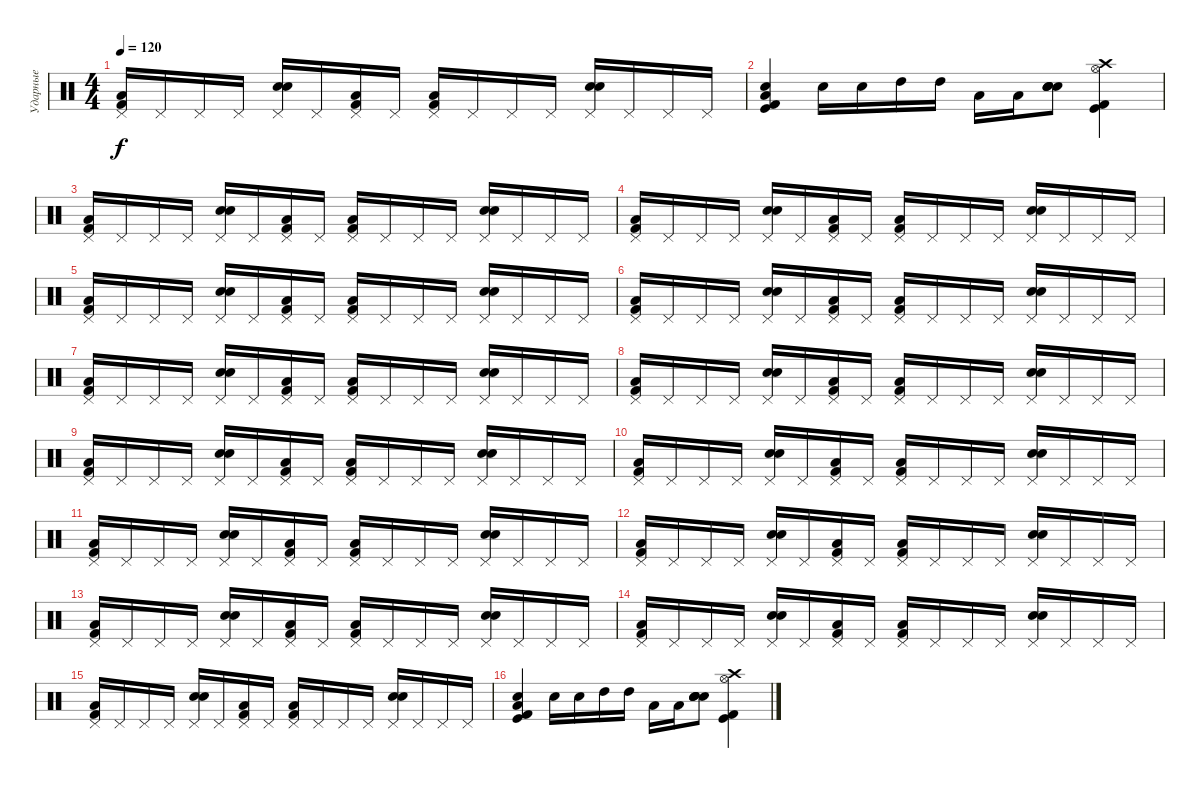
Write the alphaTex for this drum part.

\track ("Ударные" "Ударные") {instrument percussion}
\staff {score}
\articulation defaults
\ts (4 4)
\tempo 120
\clef neutral
\ks c
("Kick (hit) 2" "Low Floor Tom (hit)" "Pedal Hi-Hat (hit)").16{dy f} "Pedal Hi-Hat (hit)".16 "Pedal Hi-Hat (hit)".16 "Pedal Hi-Hat (hit)".16 ("Electric Snare (hit)" "Electric Snare (hit)" "Pedal Hi-Hat (hit)").16 "Pedal Hi-Hat (hit)".16 ("Kick (hit) 2" "Low Floor Tom (hit)" "Pedal Hi-Hat (hit)").16 "Pedal Hi-Hat (hit)".16 ("Kick (hit) 2" "Low Floor Tom (hit)" "Pedal Hi-Hat (hit)").16 "Pedal Hi-Hat (hit)".16 "Pedal Hi-Hat (hit)".16 "Pedal Hi-Hat (hit)".16 ("Electric Snare (hit)" "Electric Snare (hit)" "Pedal Hi-Hat (hit)").16 "Pedal Hi-Hat (hit)".16 "Pedal Hi-Hat (hit)".16 "Pedal Hi-Hat (hit)".16 |
("Low Floor Tom (hit)" "Kick (hit)" "Snare (hit) 2" "Kick (hit) 2").4 "Electric Snare (hit)".16 "Electric Snare (hit)".16 "High Tom (hit)".16 "High Tom (hit)".16 "Low Tom (hit)".16 "Low Tom (hit)".16 ("Snare (hit) 2" "Snare (hit) 2" "Snare (hit) 2" "Snare (hit) 2").8 ("Hi-Hat (open)" "Crash high (hit)" "Kick (hit)" "Kick (hit) 2").4 |
("Kick (hit) 2" "Low Floor Tom (hit)" "Pedal Hi-Hat (hit)").16 "Pedal Hi-Hat (hit)".16 "Pedal Hi-Hat (hit)".16 "Pedal Hi-Hat (hit)".16 ("Electric Snare (hit)" "Electric Snare (hit)" "Pedal Hi-Hat (hit)").16 "Pedal Hi-Hat (hit)".16 ("Kick (hit) 2" "Low Floor Tom (hit)" "Pedal Hi-Hat (hit)").16 "Pedal Hi-Hat (hit)".16 ("Kick (hit) 2" "Low Floor Tom (hit)" "Pedal Hi-Hat (hit)").16 "Pedal Hi-Hat (hit)".16 "Pedal Hi-Hat (hit)".16 "Pedal Hi-Hat (hit)".16 ("Electric Snare (hit)" "Electric Snare (hit)" "Pedal Hi-Hat (hit)").16 "Pedal Hi-Hat (hit)".16 "Pedal Hi-Hat (hit)".16 "Pedal Hi-Hat (hit)".16 |
("Kick (hit) 2" "Low Floor Tom (hit)" "Pedal Hi-Hat (hit)").16 "Pedal Hi-Hat (hit)".16 "Pedal Hi-Hat (hit)".16 "Pedal Hi-Hat (hit)".16 ("Electric Snare (hit)" "Electric Snare (hit)" "Pedal Hi-Hat (hit)").16 "Pedal Hi-Hat (hit)".16 ("Kick (hit) 2" "Low Floor Tom (hit)" "Pedal Hi-Hat (hit)").16 "Pedal Hi-Hat (hit)".16 ("Kick (hit) 2" "Low Floor Tom (hit)" "Pedal Hi-Hat (hit)").16 "Pedal Hi-Hat (hit)".16 "Pedal Hi-Hat (hit)".16 "Pedal Hi-Hat (hit)".16 ("Electric Snare (hit)" "Electric Snare (hit)" "Pedal Hi-Hat (hit)").16 "Pedal Hi-Hat (hit)".16 "Pedal Hi-Hat (hit)".16 "Pedal Hi-Hat (hit)".16 |
("Kick (hit) 2" "Low Floor Tom (hit)" "Pedal Hi-Hat (hit)").16 "Pedal Hi-Hat (hit)".16 "Pedal Hi-Hat (hit)".16 "Pedal Hi-Hat (hit)".16 ("Electric Snare (hit)" "Electric Snare (hit)" "Pedal Hi-Hat (hit)").16 "Pedal Hi-Hat (hit)".16 ("Kick (hit) 2" "Low Floor Tom (hit)" "Pedal Hi-Hat (hit)").16 "Pedal Hi-Hat (hit)".16 ("Kick (hit) 2" "Low Floor Tom (hit)" "Pedal Hi-Hat (hit)").16 "Pedal Hi-Hat (hit)".16 "Pedal Hi-Hat (hit)".16 "Pedal Hi-Hat (hit)".16 ("Electric Snare (hit)" "Electric Snare (hit)" "Pedal Hi-Hat (hit)").16 "Pedal Hi-Hat (hit)".16 "Pedal Hi-Hat (hit)".16 "Pedal Hi-Hat (hit)".16 |
("Kick (hit) 2" "Low Floor Tom (hit)" "Pedal Hi-Hat (hit)").16 "Pedal Hi-Hat (hit)".16 "Pedal Hi-Hat (hit)".16 "Pedal Hi-Hat (hit)".16 ("Electric Snare (hit)" "Electric Snare (hit)" "Pedal Hi-Hat (hit)").16 "Pedal Hi-Hat (hit)".16 ("Kick (hit) 2" "Low Floor Tom (hit)" "Pedal Hi-Hat (hit)").16 "Pedal Hi-Hat (hit)".16 ("Kick (hit) 2" "Low Floor Tom (hit)" "Pedal Hi-Hat (hit)").16 "Pedal Hi-Hat (hit)".16 "Pedal Hi-Hat (hit)".16 "Pedal Hi-Hat (hit)".16 ("Electric Snare (hit)" "Electric Snare (hit)" "Pedal Hi-Hat (hit)").16 "Pedal Hi-Hat (hit)".16 "Pedal Hi-Hat (hit)".16 "Pedal Hi-Hat (hit)".16 |
("Kick (hit) 2" "Low Floor Tom (hit)" "Pedal Hi-Hat (hit)").16 "Pedal Hi-Hat (hit)".16 "Pedal Hi-Hat (hit)".16 "Pedal Hi-Hat (hit)".16 ("Electric Snare (hit)" "Electric Snare (hit)" "Pedal Hi-Hat (hit)").16 "Pedal Hi-Hat (hit)".16 ("Kick (hit) 2" "Low Floor Tom (hit)" "Pedal Hi-Hat (hit)").16 "Pedal Hi-Hat (hit)".16 ("Kick (hit) 2" "Low Floor Tom (hit)" "Pedal Hi-Hat (hit)").16 "Pedal Hi-Hat (hit)".16 "Pedal Hi-Hat (hit)".16 "Pedal Hi-Hat (hit)".16 ("Electric Snare (hit)" "Electric Snare (hit)" "Pedal Hi-Hat (hit)").16 "Pedal Hi-Hat (hit)".16 "Pedal Hi-Hat (hit)".16 "Pedal Hi-Hat (hit)".16 |
("Kick (hit) 2" "Low Floor Tom (hit)" "Pedal Hi-Hat (hit)").16 "Pedal Hi-Hat (hit)".16 "Pedal Hi-Hat (hit)".16 "Pedal Hi-Hat (hit)".16 ("Electric Snare (hit)" "Electric Snare (hit)" "Pedal Hi-Hat (hit)").16 "Pedal Hi-Hat (hit)".16 ("Kick (hit) 2" "Low Floor Tom (hit)" "Pedal Hi-Hat (hit)").16 "Pedal Hi-Hat (hit)".16 ("Kick (hit) 2" "Low Floor Tom (hit)" "Pedal Hi-Hat (hit)").16 "Pedal Hi-Hat (hit)".16 "Pedal Hi-Hat (hit)".16 "Pedal Hi-Hat (hit)".16 ("Electric Snare (hit)" "Electric Snare (hit)" "Pedal Hi-Hat (hit)").16 "Pedal Hi-Hat (hit)".16 "Pedal Hi-Hat (hit)".16 "Pedal Hi-Hat (hit)".16 |
("Kick (hit) 2" "Low Floor Tom (hit)" "Pedal Hi-Hat (hit)").16 "Pedal Hi-Hat (hit)".16 "Pedal Hi-Hat (hit)".16 "Pedal Hi-Hat (hit)".16 ("Electric Snare (hit)" "Electric Snare (hit)" "Pedal Hi-Hat (hit)").16 "Pedal Hi-Hat (hit)".16 ("Kick (hit) 2" "Low Floor Tom (hit)" "Pedal Hi-Hat (hit)").16 "Pedal Hi-Hat (hit)".16 ("Kick (hit) 2" "Low Floor Tom (hit)" "Pedal Hi-Hat (hit)").16 "Pedal Hi-Hat (hit)".16 "Pedal Hi-Hat (hit)".16 "Pedal Hi-Hat (hit)".16 ("Electric Snare (hit)" "Electric Snare (hit)" "Pedal Hi-Hat (hit)").16 "Pedal Hi-Hat (hit)".16 "Pedal Hi-Hat (hit)".16 "Pedal Hi-Hat (hit)".16 |
("Kick (hit) 2" "Low Floor Tom (hit)" "Pedal Hi-Hat (hit)").16 "Pedal Hi-Hat (hit)".16 "Pedal Hi-Hat (hit)".16 "Pedal Hi-Hat (hit)".16 ("Electric Snare (hit)" "Electric Snare (hit)" "Pedal Hi-Hat (hit)").16 "Pedal Hi-Hat (hit)".16 ("Kick (hit) 2" "Low Floor Tom (hit)" "Pedal Hi-Hat (hit)").16 "Pedal Hi-Hat (hit)".16 ("Kick (hit) 2" "Low Floor Tom (hit)" "Pedal Hi-Hat (hit)").16 "Pedal Hi-Hat (hit)".16 "Pedal Hi-Hat (hit)".16 "Pedal Hi-Hat (hit)".16 ("Electric Snare (hit)" "Electric Snare (hit)" "Pedal Hi-Hat (hit)").16 "Pedal Hi-Hat (hit)".16 "Pedal Hi-Hat (hit)".16 "Pedal Hi-Hat (hit)".16 |
("Kick (hit) 2" "Low Floor Tom (hit)" "Pedal Hi-Hat (hit)").16 "Pedal Hi-Hat (hit)".16 "Pedal Hi-Hat (hit)".16 "Pedal Hi-Hat (hit)".16 ("Electric Snare (hit)" "Electric Snare (hit)" "Pedal Hi-Hat (hit)").16 "Pedal Hi-Hat (hit)".16 ("Kick (hit) 2" "Low Floor Tom (hit)" "Pedal Hi-Hat (hit)").16 "Pedal Hi-Hat (hit)".16 ("Kick (hit) 2" "Low Floor Tom (hit)" "Pedal Hi-Hat (hit)").16 "Pedal Hi-Hat (hit)".16 "Pedal Hi-Hat (hit)".16 "Pedal Hi-Hat (hit)".16 ("Electric Snare (hit)" "Electric Snare (hit)" "Pedal Hi-Hat (hit)").16 "Pedal Hi-Hat (hit)".16 "Pedal Hi-Hat (hit)".16 "Pedal Hi-Hat (hit)".16 |
("Kick (hit) 2" "Low Floor Tom (hit)" "Pedal Hi-Hat (hit)").16 "Pedal Hi-Hat (hit)".16 "Pedal Hi-Hat (hit)".16 "Pedal Hi-Hat (hit)".16 ("Electric Snare (hit)" "Electric Snare (hit)" "Pedal Hi-Hat (hit)").16 "Pedal Hi-Hat (hit)".16 ("Kick (hit) 2" "Low Floor Tom (hit)" "Pedal Hi-Hat (hit)").16 "Pedal Hi-Hat (hit)".16 ("Kick (hit) 2" "Low Floor Tom (hit)" "Pedal Hi-Hat (hit)").16 "Pedal Hi-Hat (hit)".16 "Pedal Hi-Hat (hit)".16 "Pedal Hi-Hat (hit)".16 ("Electric Snare (hit)" "Electric Snare (hit)" "Pedal Hi-Hat (hit)").16 "Pedal Hi-Hat (hit)".16 "Pedal Hi-Hat (hit)".16 "Pedal Hi-Hat (hit)".16 |
("Kick (hit) 2" "Low Floor Tom (hit)" "Pedal Hi-Hat (hit)").16 "Pedal Hi-Hat (hit)".16 "Pedal Hi-Hat (hit)".16 "Pedal Hi-Hat (hit)".16 ("Electric Snare (hit)" "Electric Snare (hit)" "Pedal Hi-Hat (hit)").16 "Pedal Hi-Hat (hit)".16 ("Kick (hit) 2" "Low Floor Tom (hit)" "Pedal Hi-Hat (hit)").16 "Pedal Hi-Hat (hit)".16 ("Kick (hit) 2" "Low Floor Tom (hit)" "Pedal Hi-Hat (hit)").16 "Pedal Hi-Hat (hit)".16 "Pedal Hi-Hat (hit)".16 "Pedal Hi-Hat (hit)".16 ("Electric Snare (hit)" "Electric Snare (hit)" "Pedal Hi-Hat (hit)").16 "Pedal Hi-Hat (hit)".16 "Pedal Hi-Hat (hit)".16 "Pedal Hi-Hat (hit)".16 |
("Kick (hit) 2" "Low Floor Tom (hit)" "Pedal Hi-Hat (hit)").16 "Pedal Hi-Hat (hit)".16 "Pedal Hi-Hat (hit)".16 "Pedal Hi-Hat (hit)".16 ("Electric Snare (hit)" "Electric Snare (hit)" "Pedal Hi-Hat (hit)").16 "Pedal Hi-Hat (hit)".16 ("Kick (hit) 2" "Low Floor Tom (hit)" "Pedal Hi-Hat (hit)").16 "Pedal Hi-Hat (hit)".16 ("Kick (hit) 2" "Low Floor Tom (hit)" "Pedal Hi-Hat (hit)").16 "Pedal Hi-Hat (hit)".16 "Pedal Hi-Hat (hit)".16 "Pedal Hi-Hat (hit)".16 ("Electric Snare (hit)" "Electric Snare (hit)" "Pedal Hi-Hat (hit)").16 "Pedal Hi-Hat (hit)".16 "Pedal Hi-Hat (hit)".16 "Pedal Hi-Hat (hit)".16 |
("Kick (hit) 2" "Low Floor Tom (hit)" "Pedal Hi-Hat (hit)").16 "Pedal Hi-Hat (hit)".16 "Pedal Hi-Hat (hit)".16 "Pedal Hi-Hat (hit)".16 ("Electric Snare (hit)" "Electric Snare (hit)" "Pedal Hi-Hat (hit)").16 "Pedal Hi-Hat (hit)".16 ("Kick (hit) 2" "Low Floor Tom (hit)" "Pedal Hi-Hat (hit)").16 "Pedal Hi-Hat (hit)".16 ("Kick (hit) 2" "Low Floor Tom (hit)" "Pedal Hi-Hat (hit)").16 "Pedal Hi-Hat (hit)".16 "Pedal Hi-Hat (hit)".16 "Pedal Hi-Hat (hit)".16 ("Electric Snare (hit)" "Electric Snare (hit)" "Pedal Hi-Hat (hit)").16 "Pedal Hi-Hat (hit)".16 "Pedal Hi-Hat (hit)".16 "Pedal Hi-Hat (hit)".16 |
("Low Floor Tom (hit)" "Kick (hit)" "Snare (hit) 2" "Kick (hit) 2").4 "Electric Snare (hit)".16 "Electric Snare (hit)".16 "High Tom (hit)".16 "High Tom (hit)".16 "Low Tom (hit)".16 "Low Tom (hit)".16 ("Snare (hit) 2" "Snare (hit) 2" "Snare (hit) 2" "Snare (hit) 2").8 ("Hi-Hat (open)" "Crash high (hit)" "Kick (hit)" "Kick (hit) 2").4
